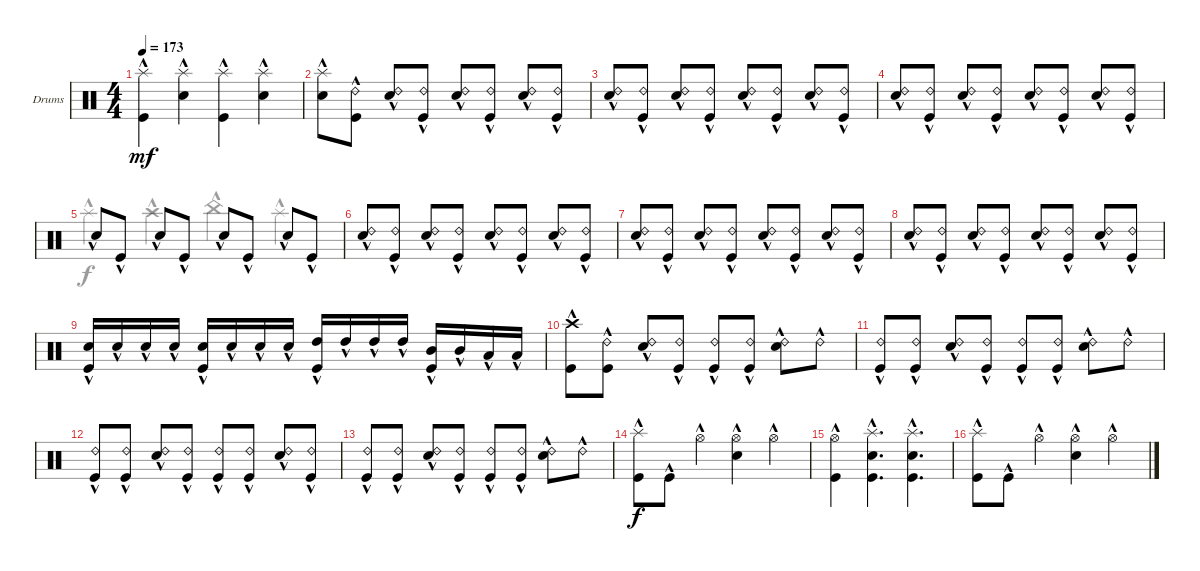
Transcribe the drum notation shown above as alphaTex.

\defaultSystemsLayout 4
\bracketExtendMode groupsimilarinstruments
\firstSystemTrackNameOrientation horizontal
\otherSystemsTrackNameOrientation horizontal
\track ("Drumkit" "Drums") {instrument percussion}
\staff {score}
\articulation defaults
\voice
\ts (4 4)
\tempo 173
\clef neutral
\ks c
("Splash (hit)"{hac} "Kick (hit)"{hac}).4{dy mf} ("Splash (hit)"{hac} "Snare (hit) 2"{hac}).4 ("Splash (hit)"{hac} "Kick (hit)"{hac}).4 ("Splash (hit)"{hac} "Snare (hit) 2"{hac}).4 |
("Snare (hit) 2"{hac} "Splash (hit)"{hac}).8 ("Kick (hit)"{hac} "Ride (bell) 2"{hac}).8 ("Snare (hit) 2"{hac} "Ride (bell) 2"{hac}).8 ("Kick (hit)"{hac} "Ride (bell) 2"{hac}).8 ("Snare (hit) 2"{hac} "Ride (bell) 2"{hac}).8 ("Kick (hit)"{hac} "Ride (bell) 2"{hac}).8 ("Snare (hit) 2"{hac} "Ride (bell) 2"{hac}).8 ("Kick (hit)"{hac} "Ride (bell) 2"{hac}).8 |
("Snare (hit) 2"{hac} "Ride (bell) 2"{hac}).8 ("Kick (hit)"{hac} "Ride (bell) 2"{hac}).8 ("Snare (hit) 2"{hac} "Ride (bell) 2"{hac}).8 ("Kick (hit)"{hac} "Ride (bell) 2"{hac}).8 ("Snare (hit) 2"{hac} "Ride (bell) 2"{hac}).8 ("Kick (hit)"{hac} "Ride (bell) 2"{hac}).8 ("Snare (hit) 2"{hac} "Ride (bell) 2"{hac}).8 ("Kick (hit)"{hac} "Ride (bell) 2"{hac}).8 |
("Snare (hit) 2"{hac} "Ride (bell) 2"{hac}).8 ("Kick (hit)"{hac} "Ride (bell) 2"{hac}).8 ("Snare (hit) 2"{hac} "Ride (bell) 2"{hac}).8 ("Kick (hit)"{hac} "Ride (bell) 2"{hac}).8 ("Snare (hit) 2"{hac} "Ride (bell) 2"{hac}).8 ("Kick (hit)"{hac} "Ride (bell) 2"{hac}).8 ("Snare (hit) 2"{hac} "Ride (bell) 2"{hac}).8 ("Kick (hit)"{hac} "Ride (bell) 2"{hac}).8 |
"Snare (hit) 2"{hac}.8 "Kick (hit)"{hac}.8 "Snare (hit) 2"{hac}.8 "Kick (hit)"{hac}.8 "Snare (hit) 2"{hac}.8 "Kick (hit)"{hac}.8 "Snare (hit) 2"{hac}.8 "Kick (hit)"{hac}.8 |
("Snare (hit) 2"{hac} "Ride (bell) 2").8 ("Kick (hit)"{hac} "Ride (bell) 2"{hac}).8 ("Snare (hit) 2"{hac} "Ride (bell) 2"{hac}).8 ("Kick (hit)"{hac} "Ride (bell) 2"{hac}).8 ("Snare (hit) 2"{hac} "Ride (bell) 2"{hac}).8 ("Kick (hit)"{hac} "Ride (bell) 2"{hac}).8 ("Snare (hit) 2"{hac} "Ride (bell) 2"{hac}).8 ("Kick (hit)"{hac} "Ride (bell) 2"{hac}).8 |
("Snare (hit) 2"{hac} "Ride (bell) 2"{hac}).8 ("Kick (hit)"{hac} "Ride (bell) 2"{hac}).8 ("Snare (hit) 2"{hac} "Ride (bell) 2"{hac}).8 ("Kick (hit)"{hac} "Ride (bell) 2"{hac}).8 ("Snare (hit) 2"{hac} "Ride (bell) 2"{hac}).8 ("Kick (hit)"{hac} "Ride (bell) 2"{hac}).8 ("Snare (hit) 2"{hac} "Ride (bell) 2"{hac}).8 ("Kick (hit)"{hac} "Ride (bell) 2"{hac}).8 |
("Snare (hit) 2"{hac} "Ride (bell) 2"{hac}).8 ("Kick (hit)"{hac} "Ride (bell) 2"{hac}).8 ("Snare (hit) 2"{hac} "Ride (bell) 2"{hac}).8 ("Kick (hit)"{hac} "Ride (bell) 2"{hac}).8 ("Snare (hit) 2"{hac} "Ride (bell) 2"{hac}).8 ("Kick (hit)"{hac} "Ride (bell) 2"{hac}).8 ("Snare (hit) 2"{hac} "Ride (bell) 2"{hac}).8 ("Kick (hit)"{hac} "Ride (bell) 2"{hac}).8 |
("Kick (hit)"{hac} "Snare (hit) 2"{hac}).16 "Snare (hit) 2"{hac}.16 "Snare (hit) 2"{hac}.16 "Snare (hit) 2"{hac}.16 ("Kick (hit)"{hac} "Snare (hit) 2"{hac}).16 "Snare (hit) 2"{hac}.16 "Snare (hit) 2"{hac}.16 "Snare (hit) 2"{hac}.16 ("Kick (hit)"{hac} "High Tom (hit)"{hac}).16 "High Tom (hit)"{hac}.16 "High Tom (hit)"{hac}.16 "High Tom (hit)"{hac}.16 ("Mid Tom (hit)"{hac} "Kick (hit)"{hac}).16 "Mid Tom (hit)"{hac}.16 "Low Tom (hit)"{hac}.16 "Low Tom (hit)"{hac}.16 |
("Kick (hit)"{hac} "Crash high (hit)"{hac}).8 ("Ride (bell) 2"{hac} "Kick (hit)"{hac}).8 ("Ride (bell) 2"{hac} "Snare (hit) 2"{hac}).8 ("Ride (bell) 2"{hac} "Kick (hit)"{hac}).8 ("Ride (bell) 2"{hac} "Kick (hit)"{hac}).8 ("Ride (bell) 2"{hac} "Kick (hit)"{hac}).8 ("Ride (bell) 2"{hac} "Snare (hit) 2"{hac}).8 "Ride (bell) 2"{hac}.8 |
("Ride (bell) 2"{hac} "Kick (hit)"{hac}).8 ("Ride (bell) 2"{hac} "Kick (hit)"{hac}).8 ("Ride (bell) 2"{hac} "Snare (hit) 2"{hac}).8 ("Ride (bell) 2"{hac} "Kick (hit)"{hac}).8 ("Ride (bell) 2"{hac} "Kick (hit)"{hac}).8 ("Ride (bell) 2"{hac} "Kick (hit)"{hac}).8 ("Ride (bell) 2"{hac} "Snare (hit) 2"{hac}).8 "Ride (bell) 2"{hac}.8 |
("Ride (bell) 2"{hac} "Kick (hit)"{hac}).8 ("Ride (bell) 2"{hac} "Kick (hit)"{hac}).8 ("Ride (bell) 2"{hac} "Snare (hit) 2"{hac}).8 ("Ride (bell) 2"{hac} "Kick (hit)"{hac}).8 ("Ride (bell) 2"{hac} "Kick (hit)"{hac}).8 ("Ride (bell) 2"{hac} "Kick (hit)"{hac}).8 ("Ride (bell) 2"{hac} "Snare (hit) 2"{hac}).8 ("Ride (bell) 2"{hac} "Kick (hit)"{hac}).8 |
("Ride (bell) 2"{hac} "Kick (hit)"{hac}).8 ("Ride (bell) 2"{hac} "Kick (hit)"{hac}).8 ("Ride (bell) 2"{hac} "Snare (hit) 2"{hac}).8 ("Ride (bell) 2"{hac} "Kick (hit)"{hac}).8 ("Ride (bell) 2"{hac} "Kick (hit)"{hac}).8 ("Ride (bell) 2"{hac} "Kick (hit)"{hac}).8 ("Ride (bell) 2"{hac} "Snare (hit) 2"{hac}).8 "Ride (bell) 2"{hac}.8 |
("Splash (hit)"{hac} "Kick (hit)"{hac}).8{dy f} "Kick (hit)"{hac}.8 "Hi-Hat (open)"{hac}.4 ("Snare (hit) 2"{hac} "Hi-Hat (open)"{hac}).4 "Hi-Hat (open)"{hac}.4 |
("Kick (hit)"{hac} "Hi-Hat (open)"{hac}).4 ("Kick (hit)"{hac} "Splash (hit)"{hac} "Snare (hit) 2"{hac}).4{d} ("Kick (hit)"{hac} "Splash (hit)"{hac} "Snare (hit) 2"{hac}).4{d} |
("Splash (hit)"{hac} "Kick (hit)"{hac}).8 "Kick (hit)"{hac}.8 "Hi-Hat (open)"{hac}.4 ("Snare (hit) 2"{hac} "Hi-Hat (open)"{hac}).4 "Hi-Hat (open)"{hac}.4
\voice
\clef neutral
\ottava regular
\simile none
\ks c
|
|
|
|
"Splash (hit)"{hac}.4 "Crash high (hit)"{hac}.4 "China (hit)"{hac}.4 "Splash (hit)"{hac}.4 |
|
|
|
|
|
|
|
|
|
|
